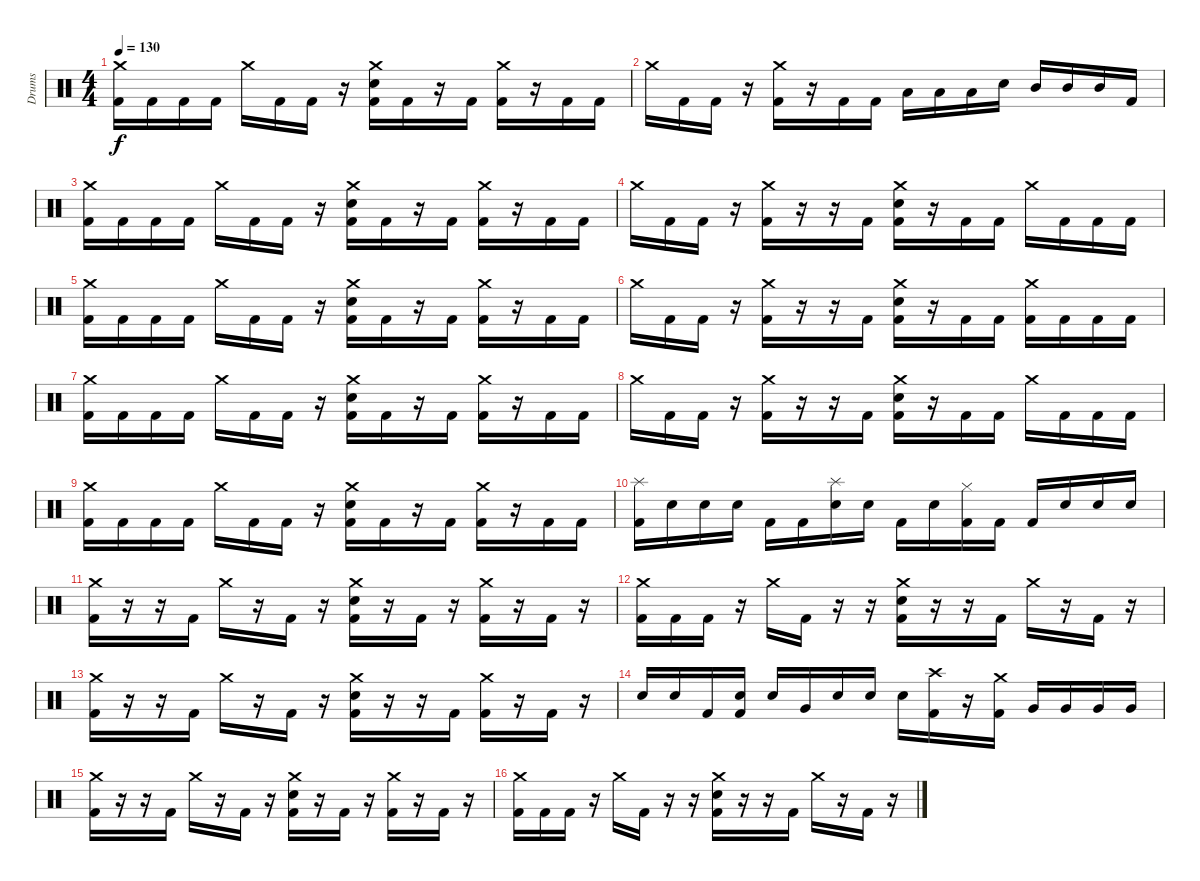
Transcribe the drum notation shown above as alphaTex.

\track ("Drums" "Drums") {instrument percussion}
\staff {score}
\articulation defaults
\ts (4 4)
\tempo 130
\clef neutral
\ks c
("Crash medium (hit)" "Kick (hit) 2").16{dy f} "Kick (hit) 2".16 "Kick (hit) 2".16 "Kick (hit) 2".16 "Crash medium (hit)".16 "Kick (hit) 2".16 "Kick (hit) 2".16 r.16 ("Crash medium (hit)" "Electric Snare (hit)" "Kick (hit) 2").16 "Kick (hit) 2".16 r.16 "Kick (hit) 2".16 ("Crash medium (hit)" "Kick (hit) 2").16 r.16 "Kick (hit) 2".16 "Kick (hit) 2".16 |
"Crash medium (hit)".16 "Kick (hit) 2".16 "Kick (hit) 2".16 r.16 ("Crash medium (hit)" "Kick (hit) 2").16 r.16 "Kick (hit) 2".16 "Kick (hit) 2".16 "Low Tom (hit)".16 "Low Tom (hit)".16 "Low Tom (hit)".16 "Electric Snare (hit)".16 "Mid Tom (hit)".16 "Mid Tom (hit)".16 "Mid Tom (hit)".16 "Kick (hit) 2".16 |
("Crash medium (hit)" "Kick (hit) 2").16 "Kick (hit) 2".16 "Kick (hit) 2".16 "Kick (hit) 2".16 "Crash medium (hit)".16 "Kick (hit) 2".16 "Kick (hit) 2".16 r.16 ("Crash medium (hit)" "Electric Snare (hit)" "Kick (hit) 2").16 "Kick (hit) 2".16 r.16 "Kick (hit) 2".16 ("Crash medium (hit)" "Kick (hit) 2").16 r.16 "Kick (hit) 2".16 "Kick (hit) 2".16 |
"Crash medium (hit)".16 "Kick (hit) 2".16 "Kick (hit) 2".16 r.16 ("Crash medium (hit)" "Kick (hit) 2").16 r.16 r.16 "Kick (hit) 2".16 ("Crash medium (hit)" "Electric Snare (hit)" "Kick (hit) 2").16 r.16 "Kick (hit) 2".16 "Kick (hit) 2".16 "Crash medium (hit)".16 "Kick (hit) 2".16 "Kick (hit) 2".16 "Kick (hit) 2".16 |
("Crash medium (hit)" "Kick (hit) 2").16 "Kick (hit) 2".16 "Kick (hit) 2".16 "Kick (hit) 2".16 "Crash medium (hit)".16 "Kick (hit) 2".16 "Kick (hit) 2".16 r.16 ("Crash medium (hit)" "Electric Snare (hit)" "Kick (hit) 2").16 "Kick (hit) 2".16 r.16 "Kick (hit) 2".16 ("Crash medium (hit)" "Kick (hit) 2").16 r.16 "Kick (hit) 2".16 "Kick (hit) 2".16 |
"Crash medium (hit)".16 "Kick (hit) 2".16 "Kick (hit) 2".16 r.16 ("Crash medium (hit)" "Kick (hit) 2").16 r.16 r.16 "Kick (hit) 2".16 ("Crash medium (hit)" "Electric Snare (hit)" "Kick (hit) 2").16 r.16 "Kick (hit) 2".16 "Kick (hit) 2".16 ("Crash medium (hit)" "Kick (hit) 2").16 "Kick (hit) 2".16 "Kick (hit) 2".16 "Kick (hit) 2".16 |
("Crash medium (hit)" "Kick (hit) 2").16 "Kick (hit) 2".16 "Kick (hit) 2".16 "Kick (hit) 2".16 "Crash medium (hit)".16 "Kick (hit) 2".16 "Kick (hit) 2".16 r.16 ("Crash medium (hit)" "Electric Snare (hit)" "Kick (hit) 2").16 "Kick (hit) 2".16 r.16 "Kick (hit) 2".16 ("Crash medium (hit)" "Kick (hit) 2").16 r.16 "Kick (hit) 2".16 "Kick (hit) 2".16 |
"Crash medium (hit)".16 "Kick (hit) 2".16 "Kick (hit) 2".16 r.16 ("Crash medium (hit)" "Kick (hit) 2").16 r.16 r.16 "Kick (hit) 2".16 ("Crash medium (hit)" "Electric Snare (hit)" "Kick (hit) 2").16 r.16 "Kick (hit) 2".16 "Kick (hit) 2".16 "Crash medium (hit)".16 "Kick (hit) 2".16 "Kick (hit) 2".16 "Kick (hit) 2".16 |
("Crash medium (hit)" "Kick (hit) 2").16 "Kick (hit) 2".16 "Kick (hit) 2".16 "Kick (hit) 2".16 "Crash medium (hit)".16 "Kick (hit) 2".16 "Kick (hit) 2".16 r.16 ("Crash medium (hit)" "Electric Snare (hit)" "Kick (hit) 2").16 "Kick (hit) 2".16 r.16 "Kick (hit) 2".16 ("Crash medium (hit)" "Kick (hit) 2").16 r.16 "Kick (hit) 2".16 "Kick (hit) 2".16 |
("Splash (hit)" "Kick (hit) 2").16 "Electric Snare (hit)".16 "Electric Snare (hit)".16 "Electric Snare (hit)".16 "Kick (hit) 2".16 "Kick (hit) 2".16 ("Splash (hit)" "Electric Snare (hit)").16 "Electric Snare (hit)".16 "Kick (hit) 2".16 "Electric Snare (hit)".16 ("Hi-Hat (closed)" "Kick (hit) 2").16 "Kick (hit) 2".16 "Kick (hit) 2".16 "Electric Snare (hit)".16 "Electric Snare (hit)".16 "Electric Snare (hit)".16 |
("Crash medium (hit)" "Kick (hit) 2").16 r.16 r.16 "Kick (hit) 2".16 "Crash medium (hit)".16 r.16 "Kick (hit) 2".16 r.16 ("Crash medium (hit)" "Electric Snare (hit)" "Kick (hit) 2").16 r.16 "Kick (hit) 2".16 r.16 ("Crash medium (hit)" "Kick (hit) 2").16 r.16 "Kick (hit) 2".16 r.16 |
("Crash medium (hit)" "Kick (hit) 2").16 "Kick (hit) 2".16 "Kick (hit) 2".16 r.16 "Crash medium (hit)".16 "Kick (hit) 2".16 r.16 r.16 ("Crash medium (hit)" "Electric Snare (hit)" "Kick (hit) 2").16 r.16 r.16 "Kick (hit) 2".16 "Crash medium (hit)".16 r.16 "Kick (hit) 2".16 r.16 |
("Crash medium (hit)" "Kick (hit) 2").16 r.16 r.16 "Kick (hit) 2".16 "Crash medium (hit)".16 r.16 "Kick (hit) 2".16 r.16 ("Crash medium (hit)" "Electric Snare (hit)" "Kick (hit) 2").16 r.16 r.16 "Kick (hit) 2".16 ("Crash medium (hit)" "Kick (hit) 2").16 r.16 "Kick (hit) 2".16 r.16 |
"Electric Snare (hit)".16 "Electric Snare (hit)".16 "Kick (hit) 2".16 ("Electric Snare (hit)" "Kick (hit) 2").16 "Electric Snare (hit)".16 "Very Low Tom (hit)".16 "Electric Snare (hit)".16 "Electric Snare (hit)".16 "Electric Snare (hit)".16 ("Crash high (hit)" "Kick (hit) 2").16 r.16 ("Crash medium (hit)" "Kick (hit) 2").16 "Very Low Tom (hit)".16 "Very Low Tom (hit)".16 "Very Low Tom (hit)".16 "Very Low Tom (hit)".16 |
("Crash medium (hit)" "Kick (hit) 2").16 r.16 r.16 "Kick (hit) 2".16 "Crash medium (hit)".16 r.16 "Kick (hit) 2".16 r.16 ("Crash medium (hit)" "Electric Snare (hit)" "Kick (hit) 2").16 r.16 "Kick (hit) 2".16 r.16 ("Crash medium (hit)" "Kick (hit) 2").16 r.16 "Kick (hit) 2".16 r.16 |
("Crash medium (hit)" "Kick (hit) 2").16 "Kick (hit) 2".16 "Kick (hit) 2".16 r.16 "Crash medium (hit)".16 "Kick (hit) 2".16 r.16 r.16 ("Crash medium (hit)" "Electric Snare (hit)" "Kick (hit) 2").16 r.16 r.16 "Kick (hit) 2".16 "Crash medium (hit)".16 r.16 "Kick (hit) 2".16 r.16
